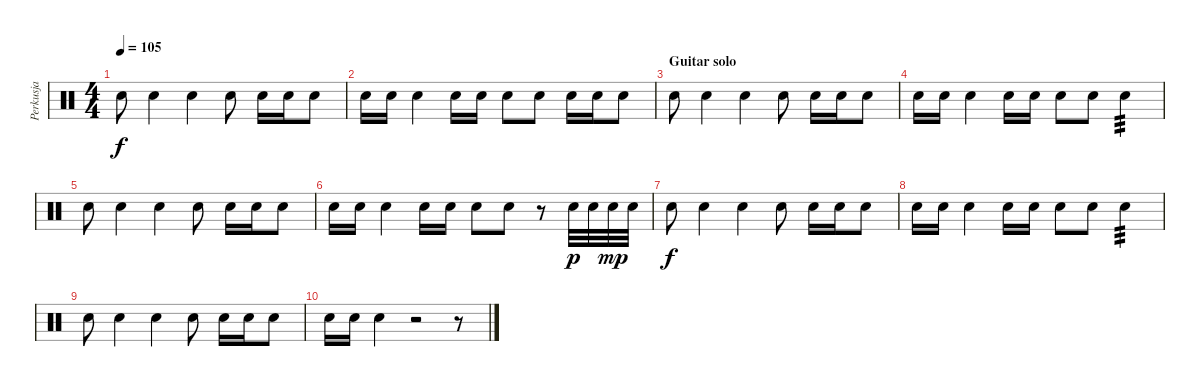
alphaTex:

\track ("Perkusja" "Perkusja") {instrument percussion}
\staff {score}
\articulation defaults
\ts (4 4)
\tempo 105
\clef neutral
\ks c "Snare (hit) 2".8{dy f} "Snare (hit) 2".4 "Snare (hit) 2".4 "Snare (hit) 2".8 "Snare (hit) 2".16 "Snare (hit) 2".16 "Snare (hit) 2".8
|
"Snare (hit) 2".16 "Snare (hit) 2".16 "Snare (hit) 2".4 "Snare (hit) 2".16 "Snare (hit) 2".16 "Snare (hit) 2".8 "Snare (hit) 2".8 "Snare (hit) 2".16 "Snare (hit) 2".16 "Snare (hit) 2".8 |
\section ("" "Guitar solo")
"Snare (hit) 2".8 "Snare (hit) 2".4 "Snare (hit) 2".4 "Snare (hit) 2".8 "Snare (hit) 2".16 "Snare (hit) 2".16 "Snare (hit) 2".8 |
"Snare (hit) 2".16 "Snare (hit) 2".16 "Snare (hit) 2".4 "Snare (hit) 2".16 "Snare (hit) 2".16 "Snare (hit) 2".8 "Snare (hit) 2".8 "Snare (hit) 2".4{tp 3} |
"Snare (hit) 2".8 "Snare (hit) 2".4 "Snare (hit) 2".4 "Snare (hit) 2".8 "Snare (hit) 2".16 "Snare (hit) 2".16 "Snare (hit) 2".8 |
"Snare (hit) 2".16 "Snare (hit) 2".16 "Snare (hit) 2".4 "Snare (hit) 2".16 "Snare (hit) 2".16 "Snare (hit) 2".8 "Snare (hit) 2".8 r.8 "Snare (hit) 2".32{dy p} "Snare (hit) 2".32 "Snare (hit) 2".32{dy mp} "Snare (hit) 2".32 |
"Snare (hit) 2".8{dy f} "Snare (hit) 2".4 "Snare (hit) 2".4 "Snare (hit) 2".8 "Snare (hit) 2".16 "Snare (hit) 2".16 "Snare (hit) 2".8 |
"Snare (hit) 2".16 "Snare (hit) 2".16 "Snare (hit) 2".4 "Snare (hit) 2".16 "Snare (hit) 2".16 "Snare (hit) 2".8 "Snare (hit) 2".8 "Snare (hit) 2".4{tp 3} |
"Snare (hit) 2".8 "Snare (hit) 2".4 "Snare (hit) 2".4 "Snare (hit) 2".8 "Snare (hit) 2".16 "Snare (hit) 2".16 "Snare (hit) 2".8 |
"Snare (hit) 2".16 "Snare (hit) 2".16 "Snare (hit) 2".4 r.2 r.8
